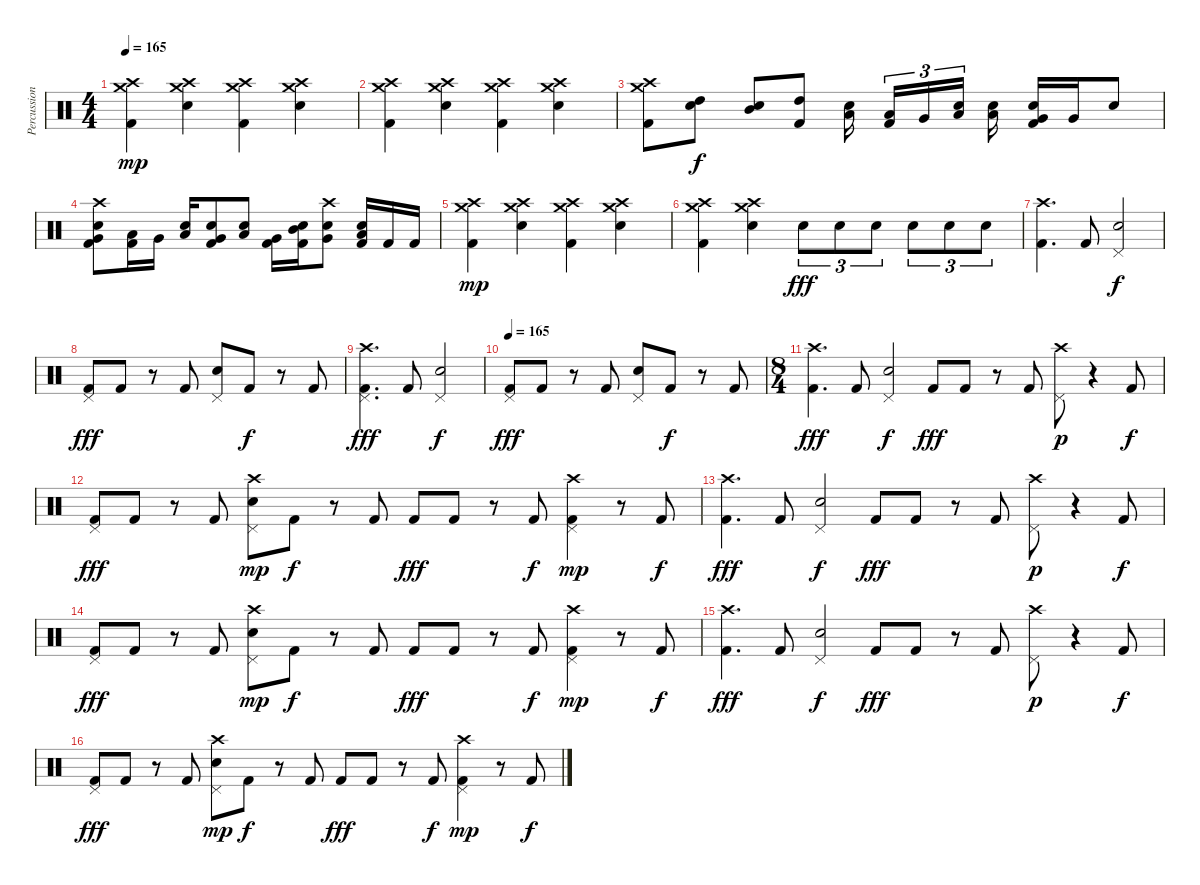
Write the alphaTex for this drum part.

\track ("Percussion" "Percussion") {instrument percussion}
\staff {score}
\articulation defaults
\ts (4 4)
\tempo 165
\clef neutral
\ks c
("Crash high (hit)" "Crash medium (hit)" "Kick (hit) 2").4{dy mp} ("Crash high (hit)" "Crash medium (hit)" "Snare (hit) 2").4 ("Crash high (hit)" "Crash medium (hit)" "Kick (hit) 2").4 ("Crash high (hit)" "Crash medium (hit)" "Snare (hit) 2").4 |
("Crash high (hit)" "Crash medium (hit)" "Kick (hit) 2").4 ("Crash high (hit)" "Crash medium (hit)" "Snare (hit) 2").4 ("Crash high (hit)" "Crash medium (hit)" "Kick (hit) 2").4 ("Crash high (hit)" "Crash medium (hit)" "Snare (hit) 2").4 |
("Crash high (hit)" "Crash medium (hit)" "Kick (hit) 2").8 ("High Tom (hit)" "Snare (hit) 2").8{dy f} ("Mid Tom (hit)" "Snare (hit) 2").8 ("High Tom (hit)" "Kick (hit) 2").8 ("Low Tom (hit)" "Snare (hit) 2").16{beam splitsecondary} ("Low Tom (hit)" "Kick (hit) 2").16{tu (3 2)} "Very Low Tom (hit)".16{tu (3 2)} ("Low Tom (hit)" "Snare (hit) 2").16{tu (3 2) beam splitsecondary} ("Low Tom (hit)" "Snare (hit) 2").16 ("Very Low Tom (hit)" "Snare (hit) 2" "Kick (hit) 2").16 "Very Low Tom (hit)".16 "Snare (hit) 2".8 |
("Crash high (hit)" "Very Low Tom (hit)" "Snare (hit) 2" "Kick (hit) 2").8 ("Low Tom (hit)" "Kick (hit) 2").16 "Very Low Tom (hit)".16 ("Low Tom (hit)" "Snare (hit) 2").16 ("Very Low Tom (hit)" "Snare (hit) 2" "Kick (hit) 2").8 ("Low Tom (hit)" "Snare (hit) 2").8 ("Very Low Tom (hit)" "Kick (hit) 2").16 ("Mid Tom (hit)" "Snare (hit) 2" "Kick (hit) 2").16 ("Crash high (hit)" "Very Low Tom (hit)" "Snare (hit) 2").8 ("Low Tom (hit)" "Snare (hit) 2" "Kick (hit) 2").16 "Kick (hit) 2".16 "Kick (hit) 2".16 |
("Crash high (hit)" "Crash medium (hit)" "Kick (hit) 2").4{dy mp} ("Crash high (hit)" "Crash medium (hit)" "Snare (hit) 2").4 ("Crash high (hit)" "Crash medium (hit)" "Kick (hit) 2").4 ("Crash high (hit)" "Crash medium (hit)" "Snare (hit) 2").4 |
("Crash high (hit)" "Crash medium (hit)" "Kick (hit) 2").4 ("Crash high (hit)" "Crash medium (hit)" "Snare (hit) 2").4 "Snare (hit) 2".8{tu (3 2) dy fff} "Snare (hit) 2".8{tu (3 2)} "Snare (hit) 2".8{tu (3 2)} "Snare (hit) 2".8{tu (3 2)} "Snare (hit) 2".8{tu (3 2)} "Snare (hit) 2".8{tu (3 2)} |
("Crash high (hit)" "Kick (hit) 2").4{d} "Kick (hit) 2".8 ("Pedal Hi-Hat (hit)" "Snare (hit) 2").2{dy f} |
("Pedal Hi-Hat (hit)" "Kick (hit) 2").8{dy fff} "Kick (hit) 2".8 r.8 "Kick (hit) 2".8 ("Pedal Hi-Hat (hit)" "Snare (hit) 2").8 "Kick (hit) 2".8{dy f} r.8 "Kick (hit) 2".8 |
("Crash high (hit)" "Pedal Hi-Hat (hit)" "Kick (hit) 2").4{d dy fff} "Kick (hit) 2".8 ("Pedal Hi-Hat (hit)" "Snare (hit) 2").2{dy f} |
\tempo 165
("Pedal Hi-Hat (hit)" "Kick (hit) 2").8{dy fff} "Kick (hit) 2".8 r.8 "Kick (hit) 2".8 ("Pedal Hi-Hat (hit)" "Snare (hit) 2").8 "Kick (hit) 2".8{dy f} r.8 "Kick (hit) 2".8 |
\ts (8 4)
("Crash high (hit)" "Kick (hit) 2").4{d dy fff} "Kick (hit) 2".8 ("Pedal Hi-Hat (hit)" "Snare (hit) 2").2{dy f} "Kick (hit) 2".8{dy fff} "Kick (hit) 2".8 r.8 "Kick (hit) 2".8 ("Crash high (hit)" "Pedal Hi-Hat (hit)").8{dy p} r.4 "Kick (hit) 2".8{dy f} |
("Pedal Hi-Hat (hit)" "Kick (hit) 2").8{dy fff} "Kick (hit) 2".8 r.8 "Kick (hit) 2".8 ("Crash high (hit)" "Pedal Hi-Hat (hit)" "Snare (hit) 2").8{dy mp} "Kick (hit) 2".8{dy f} r.8 "Kick (hit) 2".8 "Kick (hit) 2".8{dy fff} "Kick (hit) 2".8 r.8 "Kick (hit) 2".8{dy f} ("Crash high (hit)" "Pedal Hi-Hat (hit)" "Kick (hit) 2").4{dy mp} r.8 "Kick (hit) 2".8{dy f} |
("Crash high (hit)" "Kick (hit) 2").4{d dy fff} "Kick (hit) 2".8 ("Pedal Hi-Hat (hit)" "Snare (hit) 2").2{dy f} "Kick (hit) 2".8{dy fff} "Kick (hit) 2".8 r.8 "Kick (hit) 2".8 ("Crash high (hit)" "Pedal Hi-Hat (hit)").8{dy p} r.4 "Kick (hit) 2".8{dy f} |
("Pedal Hi-Hat (hit)" "Kick (hit) 2").8{dy fff} "Kick (hit) 2".8 r.8 "Kick (hit) 2".8 ("Crash high (hit)" "Pedal Hi-Hat (hit)" "Snare (hit) 2").8{dy mp} "Kick (hit) 2".8{dy f} r.8 "Kick (hit) 2".8 "Kick (hit) 2".8{dy fff} "Kick (hit) 2".8 r.8 "Kick (hit) 2".8{dy f} ("Crash high (hit)" "Pedal Hi-Hat (hit)" "Kick (hit) 2").4{dy mp} r.8 "Kick (hit) 2".8{dy f} |
("Crash high (hit)" "Kick (hit) 2").4{d dy fff} "Kick (hit) 2".8 ("Pedal Hi-Hat (hit)" "Snare (hit) 2").2{dy f} "Kick (hit) 2".8{dy fff} "Kick (hit) 2".8 r.8 "Kick (hit) 2".8 ("Crash high (hit)" "Pedal Hi-Hat (hit)").8{dy p} r.4 "Kick (hit) 2".8{dy f} |
("Pedal Hi-Hat (hit)" "Kick (hit) 2").8{dy fff} "Kick (hit) 2".8 r.8 "Kick (hit) 2".8 ("Crash high (hit)" "Pedal Hi-Hat (hit)" "Snare (hit) 2").8{dy mp} "Kick (hit) 2".8{dy f} r.8 "Kick (hit) 2".8 "Kick (hit) 2".8{dy fff} "Kick (hit) 2".8 r.8 "Kick (hit) 2".8{dy f} ("Crash high (hit)" "Pedal Hi-Hat (hit)" "Kick (hit) 2").4{dy mp} r.8 "Kick (hit) 2".8{dy f}
